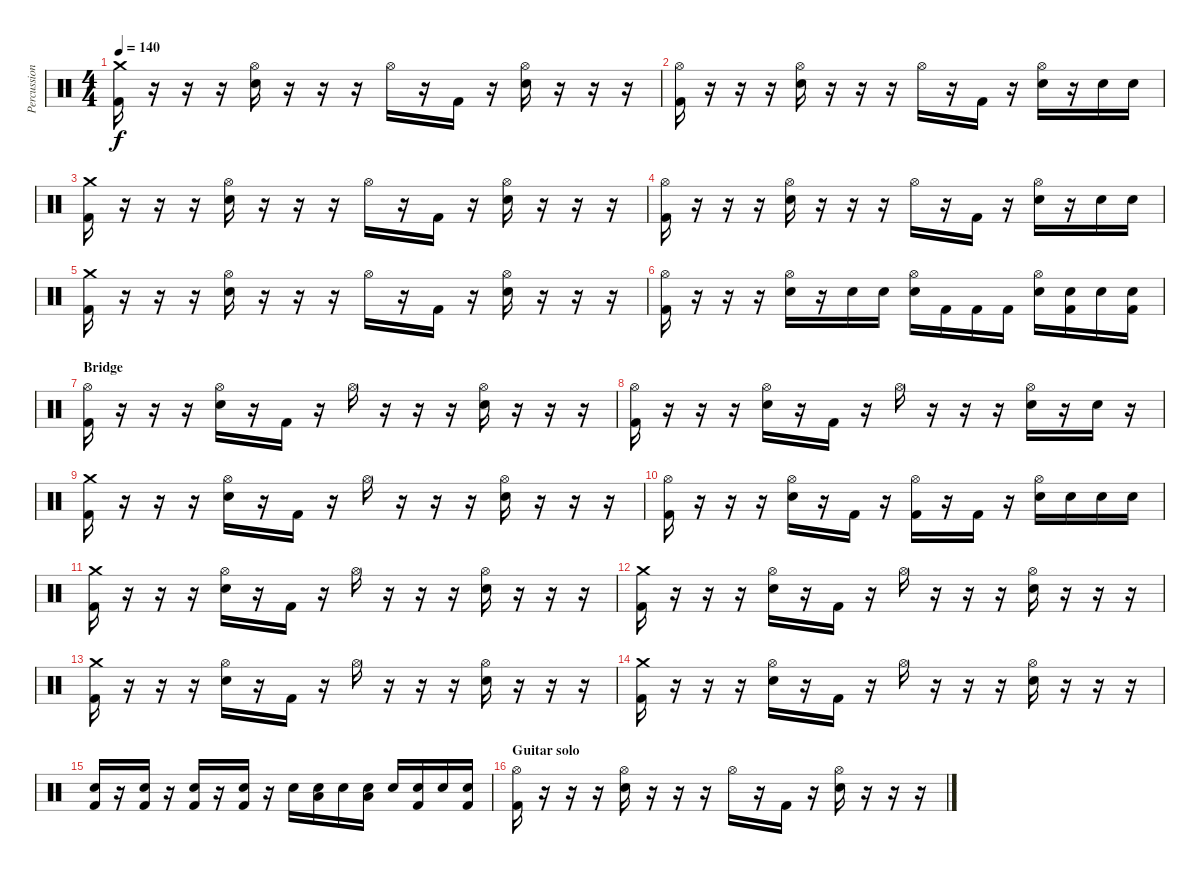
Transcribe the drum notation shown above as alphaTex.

\track ("Percussion" "Percussion") {instrument percussion}
\staff {score}
\articulation defaults
\ts (4 4)
\tempo 140
\clef neutral
\ks c
("Crash medium (hit)" "Kick (hit) 2").16{dy f} r.16 r.16 r.16 ("Hi-Hat (open)" "Snare (hit) 2").16 r.16 r.16 r.16 "Hi-Hat (open)".16 r.16 "Kick (hit) 2".16 r.16 ("Hi-Hat (open)" "Snare (hit) 2").16 r.16 r.16 r.16 |
("Hi-Hat (open)" "Kick (hit) 2").16 r.16 r.16 r.16 ("Hi-Hat (open)" "Snare (hit) 2").16 r.16 r.16 r.16 "Hi-Hat (open)".16 r.16 "Kick (hit) 2".16 r.16 ("Hi-Hat (open)" "Snare (hit) 2").16 r.16 "Snare (hit) 2".16 "Snare (hit) 2".16 |
("Crash medium (hit)" "Kick (hit) 2").16 r.16 r.16 r.16 ("Hi-Hat (open)" "Snare (hit) 2").16 r.16 r.16 r.16 "Hi-Hat (open)".16 r.16 "Kick (hit) 2".16 r.16 ("Hi-Hat (open)" "Snare (hit) 2").16 r.16 r.16 r.16 |
("Hi-Hat (open)" "Kick (hit) 2").16 r.16 r.16 r.16 ("Hi-Hat (open)" "Snare (hit) 2").16 r.16 r.16 r.16 "Hi-Hat (open)".16 r.16 "Kick (hit) 2".16 r.16 ("Hi-Hat (open)" "Snare (hit) 2").16 r.16 "Snare (hit) 2".16 "Snare (hit) 2".16 |
("Crash medium (hit)" "Kick (hit) 2").16 r.16 r.16 r.16 ("Hi-Hat (open)" "Snare (hit) 2").16 r.16 r.16 r.16 "Hi-Hat (open)".16 r.16 "Kick (hit) 2".16 r.16 ("Hi-Hat (open)" "Snare (hit) 2").16 r.16 r.16 r.16 |
("Hi-Hat (open)" "Kick (hit) 2").16 r.16 r.16 r.16 ("Hi-Hat (open)" "Snare (hit) 2").16 r.16 "Snare (hit) 2".16 "Snare (hit) 2".16 ("Hi-Hat (open)" "Snare (hit) 2").16 "Kick (hit) 2".16 "Kick (hit) 2".16 "Kick (hit) 2".16 ("Hi-Hat (open)" "Snare (hit) 2").16 ("Snare (hit) 2" "Kick (hit) 2").16 "Snare (hit) 2".16 ("Snare (hit) 2" "Kick (hit) 2").16 |
\section ("" "Bridge")
("Hi-Hat (open)" "Kick (hit) 2").16 r.16 r.16 r.16 ("Hi-Hat (open)" "Snare (hit) 2").16 r.16 "Kick (hit) 2".16 r.16 "Hi-Hat (open)".16 r.16 r.16 r.16 ("Hi-Hat (open)" "Snare (hit) 2").16 r.16 r.16 r.16 |
("Hi-Hat (open)" "Kick (hit) 2").16 r.16 r.16 r.16 ("Hi-Hat (open)" "Snare (hit) 2").16 r.16 "Kick (hit) 2".16 r.16 "Hi-Hat (open)".16 r.16 r.16 r.16 ("Hi-Hat (open)" "Snare (hit) 2").16 r.16 "Snare (hit) 2".16 r.16 |
("Crash medium (hit)" "Kick (hit) 2").16 r.16 r.16 r.16 ("Hi-Hat (open)" "Snare (hit) 2").16 r.16 "Kick (hit) 2".16 r.16 "Hi-Hat (open)".16 r.16 r.16 r.16 ("Hi-Hat (open)" "Snare (hit) 2").16 r.16 r.16 r.16 |
("Hi-Hat (open)" "Kick (hit) 2").16 r.16 r.16 r.16 ("Hi-Hat (open)" "Snare (hit) 2").16 r.16 "Kick (hit) 2".16 r.16 ("Hi-Hat (open)" "Kick (hit) 2").16 r.16 "Kick (hit) 2".16 r.16 ("Hi-Hat (open)" "Snare (hit) 2").16 "Snare (hit) 2".16 "Snare (hit) 2".16 "Snare (hit) 2".16 |
("Crash medium (hit)" "Kick (hit) 2").16 r.16 r.16 r.16 ("Hi-Hat (open)" "Snare (hit) 2").16 r.16 "Kick (hit) 2".16 r.16 "Hi-Hat (open)".16 r.16 r.16 r.16 ("Hi-Hat (open)" "Snare (hit) 2").16 r.16 r.16 r.16 |
("Crash medium (hit)" "Kick (hit) 2").16 r.16 r.16 r.16 ("Hi-Hat (open)" "Snare (hit) 2").16 r.16 "Kick (hit) 2".16 r.16 "Hi-Hat (open)".16 r.16 r.16 r.16 ("Hi-Hat (open)" "Snare (hit) 2").16 r.16 r.16 r.16 |
("Crash medium (hit)" "Kick (hit) 2").16 r.16 r.16 r.16 ("Hi-Hat (open)" "Snare (hit) 2").16 r.16 "Kick (hit) 2".16 r.16 "Hi-Hat (open)".16 r.16 r.16 r.16 ("Hi-Hat (open)" "Snare (hit) 2").16 r.16 r.16 r.16 |
("Crash medium (hit)" "Kick (hit) 2").16 r.16 r.16 r.16 ("Hi-Hat (open)" "Snare (hit) 2").16 r.16 "Kick (hit) 2".16 r.16 "Hi-Hat (open)".16 r.16 r.16 r.16 ("Hi-Hat (open)" "Snare (hit) 2").16 r.16 r.16 r.16 |
("Snare (hit) 2" "Kick (hit) 2").16 r.16 ("Snare (hit) 2" "Kick (hit) 2").16 r.16 ("Snare (hit) 2" "Kick (hit) 2").16 r.16 ("Snare (hit) 2" "Kick (hit) 2").16 r.16 "Snare (hit) 2".16 ("Low Tom (hit)" "Snare (hit) 2").16 "Snare (hit) 2".16 ("Low Tom (hit)" "Snare (hit) 2").16 "Snare (hit) 2".16 ("Kick (hit) 2" "Snare (hit) 2").16 "Snare (hit) 2".16 ("Kick (hit) 2" "Snare (hit) 2").16 |
\section ("" "Guitar solo")
("Hi-Hat (open)" "Kick (hit) 2").16 r.16 r.16 r.16 ("Hi-Hat (open)" "Snare (hit) 2").16 r.16 r.16 r.16 "Hi-Hat (open)".16 r.16 "Kick (hit) 2".16 r.16 ("Hi-Hat (open)" "Snare (hit) 2").16 r.16 r.16 r.16
